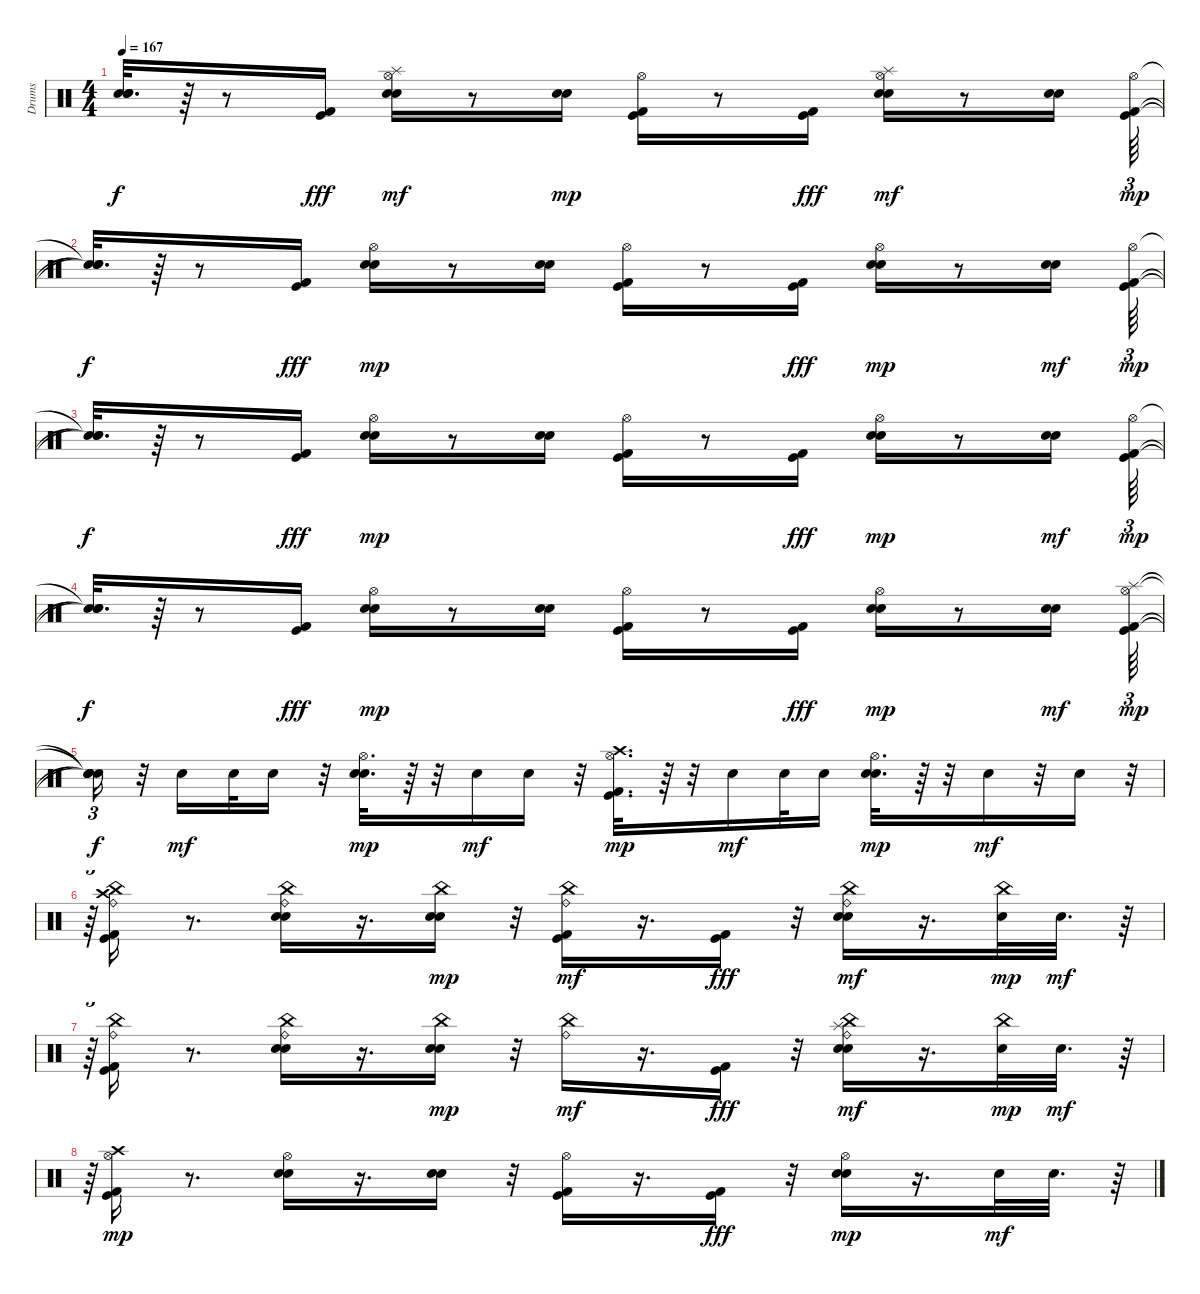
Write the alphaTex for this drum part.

\track ("Drums" "Drums") {instrument percussion}
\staff {score}
\articulation defaults
\ts (4 4)
\tempo 167
\clef neutral
\ks c
("Snare (hit)"{t} "Snare (hit)"{t} "Snare (hit)"{t}).32{d dy f} r.64 r.8 ("Kick (hit) 2" "Kick (hit)").16{dy fff} ("Snare (hit) 2" "Hand Clap (hit)" "Hi-Hat (open)" "Splash (hit)").16{dy mf} r.8 ("Snare (hit) 2" "Hand Clap (hit)").16{dy mp} ("Kick (hit) 2" "Kick (hit)" "Hi-Hat (open)").16 r.8 ("Kick (hit) 2" "Kick (hit)").16{dy fff} ("Snare (hit) 2" "Hand Clap (hit)" "Hi-Hat (open)" "Splash (hit)").16{dy mf} r.8 ("Snare (hit) 2" "Hand Clap (hit)").16 ("Kick (hit) 2" "Kick (hit)" "Hi-Hat (open)").64{tu (3 2) dy mp} |
("Snare (hit)"{t} "Snare (hit)"{t} "Snare (hit)"{t}).32{d dy f} r.64 r.8 ("Kick (hit) 2" "Kick (hit)").16{dy fff} ("Snare (hit) 2" "Hand Clap (hit)" "Hi-Hat (open)").16{dy mp} r.8 ("Snare (hit) 2" "Hand Clap (hit)").16 ("Kick (hit) 2" "Kick (hit)" "Hi-Hat (open)").16 r.8 ("Kick (hit) 2" "Kick (hit)").16{dy fff} ("Snare (hit) 2" "Hand Clap (hit)" "Hi-Hat (open)").16{dy mp} r.8 ("Snare (hit) 2" "Hand Clap (hit)").16{dy mf} ("Kick (hit) 2" "Kick (hit)" "Hi-Hat (open)").64{tu (3 2) dy mp} |
("Snare (hit)"{t} "Snare (hit)"{t} "Snare (hit)"{t}).32{d dy f} r.64 r.8 ("Kick (hit) 2" "Kick (hit)").16{dy fff} ("Snare (hit) 2" "Hand Clap (hit)" "Hi-Hat (open)").16{dy mp} r.8 ("Snare (hit) 2" "Hand Clap (hit)").16 ("Kick (hit) 2" "Kick (hit)" "Hi-Hat (open)").16 r.8 ("Kick (hit) 2" "Kick (hit)").16{dy fff} ("Snare (hit) 2" "Hand Clap (hit)" "Hi-Hat (open)").16{dy mp} r.8 ("Snare (hit) 2" "Hand Clap (hit)").16{dy mf} ("Kick (hit) 2" "Kick (hit)" "Hi-Hat (open)").64{tu (3 2) dy mp} |
("Snare (hit)"{t} "Snare (hit)"{t} "Snare (hit)"{t}).32{d dy f} r.64 r.8 ("Kick (hit) 2" "Kick (hit)").16{dy fff} ("Snare (hit) 2" "Hand Clap (hit)" "Hi-Hat (open)").16{dy mp} r.8 ("Snare (hit) 2" "Hand Clap (hit)").16 ("Kick (hit) 2" "Kick (hit)" "Hi-Hat (open)").16 r.8 ("Kick (hit) 2" "Kick (hit)").16{dy fff} ("Snare (hit) 2" "Hand Clap (hit)" "Hi-Hat (open)").16{dy mp} r.8 ("Snare (hit) 2" "Hand Clap (hit)").16{dy mf} ("Kick (hit) 2" "Kick (hit)" "Splash (hit)" "Hi-Hat (open)").64{tu (3 2) dy mp} |
("Snare (hit)"{t} "Snare (hit)"{t} "Snare (hit)"{t} "Snare (hit)"{t}).16{tu (3 2) dy f} r.32 "Snare (hit) 2".16{dy mf} "Snare (hit) 2".32 "Snare (hit) 2".16 r.32 ("Snare (hit) 2" "Hand Clap (hit)" "Hi-Hat (open)").32{d dy mp} r.64 r.32 "Snare (hit) 2".16{dy mf} "Snare (hit) 2".16 r.32 ("Kick (hit) 2" "Kick (hit)" "Crash high (hit)" "Hi-Hat (open)").32{d dy mp} r.64 r.32 "Snare (hit) 2".16{dy mf} "Snare (hit) 2".32 "Snare (hit) 2".16 ("Hand Clap (hit)" "Snare (hit) 2" "Hi-Hat (open)").32{d dy mp} r.64 r.32 "Snare (hit) 2".16{dy mf} r.32 "Snare (hit) 2".16 r.32{tu (3 2)} |
r.64{tu (3 2)} ("Kick (hit) 2" "Kick (hit)" "China (hit)" "Ride (bell)" "Crash high (hit)").16 r.8{d} ("Snare (hit) 2" "Hand Clap (hit)" "China (hit)" "Ride (bell)").16 r.16{d} ("Snare (hit) 2" "Hand Clap (hit)" "China (hit)").16{dy mp} r.32 ("Kick (hit) 2" "Kick (hit)" "China (hit)" "Ride (bell)").16{dy mf} r.16{d} ("Kick (hit) 2" "Kick (hit)").16{dy fff} r.32 ("Snare (hit) 2" "Hand Clap (hit)" "China (hit)" "Ride (bell)").16{dy mf} r.16{d} ("Snare (hit) 2" "China (hit)").32{dy mp} "Hand Clap (hit)".32{d dy mf} r.64 |
r.64{tu (3 2)} ("Kick (hit) 2" "Kick (hit)" "China (hit)" "Ride (bell)").16 r.8{d} ("Snare (hit) 2" "Hand Clap (hit)" "China (hit)" "Ride (bell)").16 r.16{d} ("Snare (hit) 2" "Hand Clap (hit)" "China (hit)").16{dy mp} r.32 ("China (hit)" "Ride (bell)").16{dy mf} r.16{d} ("Kick (hit) 2" "Kick (hit)").16{dy fff} r.32 ("Snare (hit) 2" "Hand Clap (hit)" "China (hit)" "Ride (bell)" "Splash (hit)").16{dy mf} r.16{d} ("Snare (hit) 2" "China (hit)").32{dy mp} "Hand Clap (hit)".32{d dy mf} r.64 |
r.64{tu (3 2)} ("Kick (hit) 2" "Kick (hit)" "Crash high (hit)" "Hi-Hat (open)").16{dy mp} r.8{d} ("Snare (hit) 2" "Hand Clap (hit)" "Hi-Hat (open)").16 r.16{d} ("Snare (hit) 2" "Hand Clap (hit)").16 r.32 ("Kick (hit) 2" "Kick (hit)" "Hi-Hat (open)").16 r.16{d} ("Kick (hit) 2" "Kick (hit)").16{dy fff} r.32 ("Snare (hit) 2" "Hand Clap (hit)" "Hi-Hat (open)").16{dy mp} r.16{d} "Snare (hit) 2".32{dy mf} "Hand Clap (hit)".32{d} r.64
